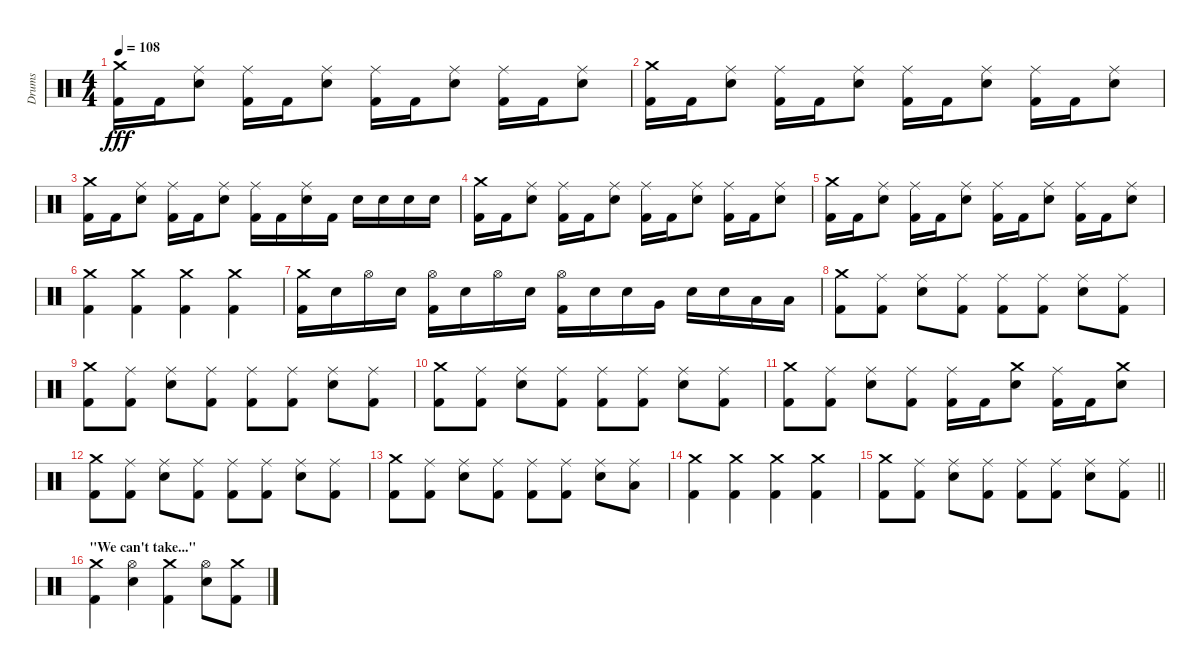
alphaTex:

\track ("Drums" "Drums") {instrument percussion}
\staff {score}
\articulation defaults
\ts (4 4)
\tempo 108
\clef neutral
\ks c
("Crash medium (hit)" "Kick (hit) 2").16{dy fff} "Kick (hit) 2".16 ("Ride (middle)" "Electric Snare (hit)").8 ("Ride (middle)" "Kick (hit) 2").16 "Kick (hit) 2".16 ("Ride (middle)" "Electric Snare (hit)").8 ("Ride (middle)" "Kick (hit) 2").16 "Kick (hit) 2".16 ("Ride (middle)" "Electric Snare (hit)").8 ("Ride (middle)" "Kick (hit) 2").16 "Kick (hit) 2".16 ("Ride (middle)" "Electric Snare (hit)").8 |
("Crash medium (hit)" "Kick (hit) 2").16 "Kick (hit) 2".16 ("Ride (middle)" "Electric Snare (hit)").8 ("Ride (middle)" "Kick (hit) 2").16 "Kick (hit) 2".16 ("Ride (middle)" "Electric Snare (hit)").8 ("Ride (middle)" "Kick (hit) 2").16 "Kick (hit) 2".16 ("Ride (middle)" "Electric Snare (hit)").8 ("Ride (middle)" "Kick (hit) 2").16 "Kick (hit) 2".16 ("Ride (middle)" "Electric Snare (hit)").8 |
("Crash medium (hit)" "Kick (hit) 2").16 "Kick (hit) 2".16 ("Ride (middle)" "Electric Snare (hit)").8 ("Ride (middle)" "Kick (hit) 2").16 "Kick (hit) 2".16 ("Ride (middle)" "Electric Snare (hit)").8 ("Ride (middle)" "Kick (hit) 2").16 "Kick (hit) 2".16 ("Ride (middle)" "Electric Snare (hit)").16 "Kick (hit) 2".16 "Electric Snare (hit)".16 "Electric Snare (hit)".16 "Electric Snare (hit)".16 "Electric Snare (hit)".16 |
("Crash medium (hit)" "Kick (hit) 2").16 "Kick (hit) 2".16 ("Ride (middle)" "Electric Snare (hit)").8 ("Ride (middle)" "Kick (hit) 2").16 "Kick (hit) 2".16 ("Ride (middle)" "Electric Snare (hit)").8 ("Ride (middle)" "Kick (hit) 2").16 "Kick (hit) 2".16 ("Ride (middle)" "Electric Snare (hit)").8 ("Ride (middle)" "Kick (hit) 2").16 "Kick (hit) 2".16 ("Ride (middle)" "Electric Snare (hit)").8 |
("Crash medium (hit)" "Kick (hit) 2").16 "Kick (hit) 2".16 ("Ride (middle)" "Electric Snare (hit)").8 ("Ride (middle)" "Kick (hit) 2").16 "Kick (hit) 2".16 ("Ride (middle)" "Electric Snare (hit)").8 ("Ride (middle)" "Kick (hit) 2").16 "Kick (hit) 2".16 ("Ride (middle)" "Electric Snare (hit)").8 ("Ride (middle)" "Kick (hit) 2").16 "Kick (hit) 2".16 ("Ride (middle)" "Electric Snare (hit)").8 |
("Crash medium (hit)" "Kick (hit) 2").4 ("Crash medium (hit)" "Kick (hit) 2").4 ("Crash medium (hit)" "Kick (hit) 2").4 ("Crash medium (hit)" "Kick (hit) 2").4 |
("Crash medium (hit)" "Kick (hit) 2").16 "Electric Snare (hit)".16 "Hi-Hat (open)".16 "Electric Snare (hit)".16 ("Hi-Hat (open)" "Kick (hit) 2").16 "Electric Snare (hit)".16 "Hi-Hat (open)".16 "Electric Snare (hit)".16 ("Hi-Hat (open)" "Kick (hit) 2").16 "Electric Snare (hit)".16 "Electric Snare (hit)".16 "Very Low Tom (hit)".16 "Electric Snare (hit)".16 "Electric Snare (hit)".16 "Low Tom (hit)".16 "Low Floor Tom (hit)".16 |
("Crash medium (hit)" "Kick (hit) 2").8 ("Ride (middle)" "Kick (hit) 2").8 ("Ride (middle)" "Electric Snare (hit)").8 ("Ride (middle)" "Kick (hit) 2").8 ("Ride (middle)" "Kick (hit) 2").8 ("Ride (middle)" "Kick (hit) 2").8 ("Ride (middle)" "Electric Snare (hit)").8 ("Ride (middle)" "Kick (hit) 2").8 |
("Crash medium (hit)" "Kick (hit) 2").8 ("Ride (middle)" "Kick (hit) 2").8 ("Ride (middle)" "Electric Snare (hit)").8 ("Ride (middle)" "Kick (hit) 2").8 ("Ride (middle)" "Kick (hit) 2").8 ("Ride (middle)" "Kick (hit) 2").8 ("Ride (middle)" "Electric Snare (hit)").8 ("Ride (middle)" "Kick (hit) 2").8 |
("Crash medium (hit)" "Kick (hit) 2").8 ("Ride (middle)" "Kick (hit) 2").8 ("Ride (middle)" "Electric Snare (hit)").8 ("Ride (middle)" "Kick (hit) 2").8 ("Ride (middle)" "Kick (hit) 2").8 ("Ride (middle)" "Kick (hit) 2").8 ("Ride (middle)" "Electric Snare (hit)").8 ("Ride (middle)" "Kick (hit) 2").8 |
("Crash medium (hit)" "Kick (hit) 2").8 ("Ride (middle)" "Kick (hit) 2").8 ("Ride (middle)" "Electric Snare (hit)").8 ("Ride (middle)" "Kick (hit) 2").8 ("Ride (middle)" "Kick (hit) 2").16 "Kick (hit) 2".16 ("Crash medium (hit)" "Electric Snare (hit)").8 ("Ride (middle)" "Kick (hit) 2").16 "Kick (hit) 2".16 ("Crash medium (hit)" "Electric Snare (hit)").8 |
("Crash medium (hit)" "Kick (hit) 2").8 ("Ride (middle)" "Kick (hit) 2").8 ("Ride (middle)" "Electric Snare (hit)").8 ("Ride (middle)" "Kick (hit) 2").8 ("Ride (middle)" "Kick (hit) 2").8 ("Ride (middle)" "Kick (hit) 2").8 ("Ride (middle)" "Electric Snare (hit)").8 ("Ride (middle)" "Kick (hit) 2").8 |
("Crash medium (hit)" "Kick (hit) 2").8 ("Ride (middle)" "Kick (hit) 2").8 ("Ride (middle)" "Electric Snare (hit)").8 ("Ride (middle)" "Kick (hit) 2").8 ("Ride (middle)" "Kick (hit) 2").8 ("Ride (middle)" "Kick (hit) 2").8 ("Ride (middle)" "Electric Snare (hit)").8 ("Ride (middle)" "Low Tom (hit)").8 |
("Crash medium (hit)" "Kick (hit) 2").4 ("Crash medium (hit)" "Kick (hit) 2").4 ("Crash medium (hit)" "Kick (hit) 2").4 ("Crash medium (hit)" "Kick (hit) 2").4 |
\barLineRight lightlight
("Crash medium (hit)" "Kick (hit) 2").8 ("Ride (middle)" "Kick (hit) 2").8 ("Ride (middle)" "Electric Snare (hit)").8 ("Ride (middle)" "Kick (hit) 2").8 ("Ride (middle)" "Kick (hit) 2").8 ("Ride (middle)" "Kick (hit) 2").8 ("Ride (middle)" "Electric Snare (hit)").8 ("Ride (middle)" "Kick (hit) 2").8 |
\section ("" "\"We can't take...\"")
("Crash medium (hit)" "Kick (hit) 2").4 ("Hi-Hat (open)" "Electric Snare (hit)").4 ("Crash medium (hit)" "Kick (hit) 2").4 ("Hi-Hat (open)" "Electric Snare (hit)").8 ("Crash medium (hit)" "Kick (hit) 2").8
